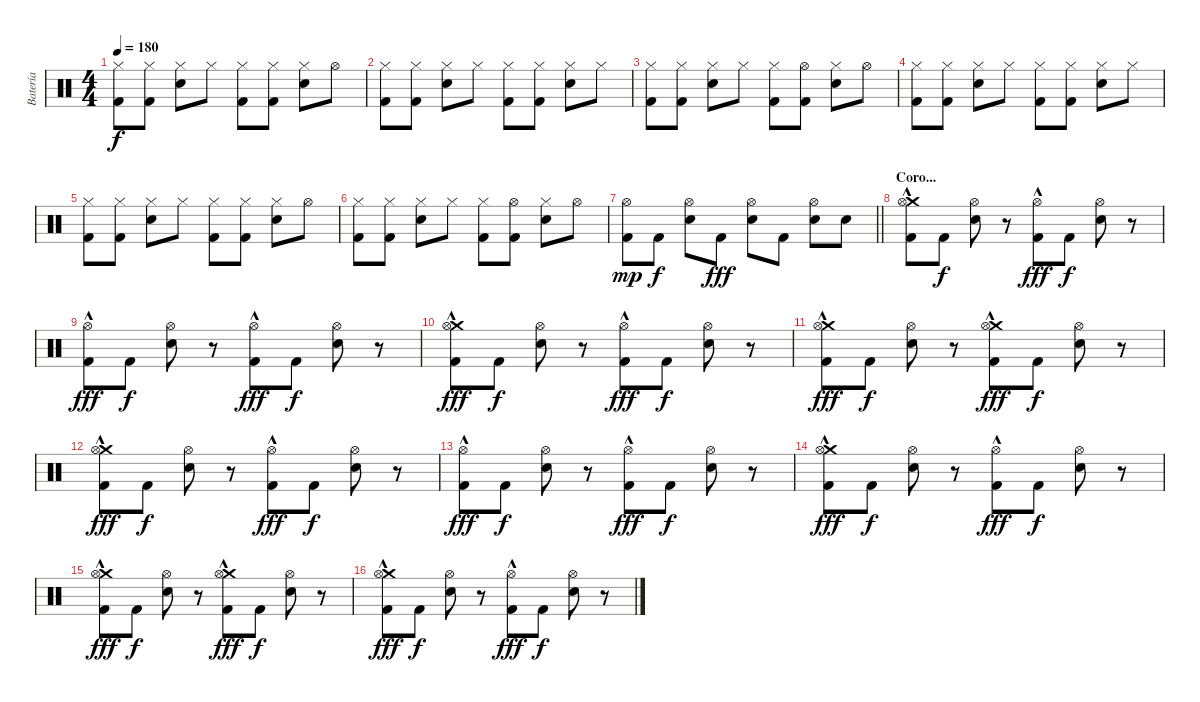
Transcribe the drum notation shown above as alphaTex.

\track ("Batería" "Batería") {instrument percussion}
\staff {score}
\articulation defaults
\ts (4 4)
\tempo 180
\clef neutral
\ks c
("Hi-Hat (closed)" "Kick (hit) 2").8{dy f} ("Hi-Hat (closed)" "Kick (hit) 2").8 ("Snare (hit) 2" "Hi-Hat (closed)").8 "Hi-Hat (closed)".8 ("Hi-Hat (closed)" "Kick (hit) 2").8 ("Hi-Hat (closed)" "Kick (hit) 2").8 ("Snare (hit) 2" "Hi-Hat (closed)").8 "Hi-Hat (open)".8 |
("Hi-Hat (closed)" "Kick (hit) 2").8 ("Hi-Hat (closed)" "Kick (hit) 2").8 ("Snare (hit) 2" "Hi-Hat (closed)").8 "Hi-Hat (closed)".8 ("Hi-Hat (closed)" "Kick (hit) 2").8 ("Hi-Hat (closed)" "Kick (hit) 2").8 ("Snare (hit) 2" "Hi-Hat (closed)").8 "Hi-Hat (closed)".8 |
("Hi-Hat (closed)" "Kick (hit) 2").8 ("Hi-Hat (closed)" "Kick (hit) 2").8 ("Snare (hit) 2" "Hi-Hat (closed)").8 "Hi-Hat (closed)".8 ("Hi-Hat (closed)" "Kick (hit) 2").8 ("Hi-Hat (open)" "Kick (hit) 2").8 ("Snare (hit) 2" "Hi-Hat (closed)").8 "Hi-Hat (open)".8 |
("Hi-Hat (closed)" "Kick (hit) 2").8 ("Hi-Hat (closed)" "Kick (hit) 2").8 ("Snare (hit) 2" "Hi-Hat (closed)").8 "Hi-Hat (closed)".8 ("Hi-Hat (closed)" "Kick (hit) 2").8 ("Hi-Hat (closed)" "Kick (hit) 2").8 ("Snare (hit) 2" "Hi-Hat (closed)").8 "Hi-Hat (closed)".8 |
("Hi-Hat (closed)" "Kick (hit) 2").8 ("Hi-Hat (closed)" "Kick (hit) 2").8 ("Snare (hit) 2" "Hi-Hat (closed)").8 "Hi-Hat (closed)".8 ("Hi-Hat (closed)" "Kick (hit) 2").8 ("Hi-Hat (closed)" "Kick (hit) 2").8 ("Snare (hit) 2" "Hi-Hat (closed)").8 "Hi-Hat (open)".8 |
("Hi-Hat (closed)" "Kick (hit) 2").8 ("Hi-Hat (closed)" "Kick (hit) 2").8 ("Snare (hit) 2" "Hi-Hat (closed)").8 "Hi-Hat (closed)".8 ("Hi-Hat (closed)" "Kick (hit) 2").8 ("Hi-Hat (open)" "Kick (hit) 2").8 ("Snare (hit) 2" "Hi-Hat (closed)").8 "Hi-Hat (open)".8 |
\barLineRight lightlight
("Hi-Hat (open)" "Kick (hit) 2").8{dy mp} "Kick (hit) 2".8{dy f} ("Snare (hit) 2" "Hi-Hat (open)").8 "Kick (hit) 2".8{dy fff} ("Snare (hit) 2" "Hi-Hat (open)").8 "Kick (hit) 2".8 ("Snare (hit) 2" "Hi-Hat (open)").8 "Snare (hit) 2".8 |
\section ("" "Coro...")
("Crash medium (hit)" "Hi-Hat (open)" "Kick (hit) 2"{hac}).8 "Kick (hit) 2".8{dy f} ("Snare (hit) 2" "Hi-Hat (open)").8 r.8 ("Hi-Hat (open)" "Kick (hit) 2"{hac}).8{dy fff} "Kick (hit) 2".8{dy f} ("Snare (hit) 2" "Hi-Hat (open)").8 r.8 |
("Hi-Hat (open)" "Kick (hit) 2"{hac}).8{dy fff} "Kick (hit) 2".8{dy f} ("Snare (hit) 2" "Hi-Hat (open)").8 r.8 ("Hi-Hat (open)" "Kick (hit) 2"{hac}).8{dy fff} "Kick (hit) 2".8{dy f} ("Snare (hit) 2" "Hi-Hat (open)").8 r.8 |
("Crash medium (hit)" "Hi-Hat (open)" "Kick (hit) 2"{hac}).8{dy fff} "Kick (hit) 2".8{dy f} ("Snare (hit) 2" "Hi-Hat (open)").8 r.8 ("Hi-Hat (open)" "Kick (hit) 2"{hac}).8{dy fff} "Kick (hit) 2".8{dy f} ("Snare (hit) 2" "Hi-Hat (open)").8 r.8 |
("Crash medium (hit)" "Hi-Hat (open)" "Kick (hit) 2"{hac}).8{dy fff} "Kick (hit) 2".8{dy f} ("Snare (hit) 2" "Hi-Hat (open)").8 r.8 ("Crash medium (hit)" "Hi-Hat (open)" "Kick (hit) 2"{hac}).8{dy fff} "Kick (hit) 2".8{dy f} ("Snare (hit) 2" "Hi-Hat (open)").8 r.8 |
("Crash medium (hit)" "Hi-Hat (open)" "Kick (hit) 2"{hac}).8{dy fff} "Kick (hit) 2".8{dy f} ("Snare (hit) 2" "Hi-Hat (open)").8 r.8 ("Hi-Hat (open)" "Kick (hit) 2"{hac}).8{dy fff} "Kick (hit) 2".8{dy f} ("Snare (hit) 2" "Hi-Hat (open)").8 r.8 |
("Hi-Hat (open)" "Kick (hit) 2"{hac}).8{dy fff} "Kick (hit) 2".8{dy f} ("Snare (hit) 2" "Hi-Hat (open)").8 r.8 ("Hi-Hat (open)" "Kick (hit) 2"{hac}).8{dy fff} "Kick (hit) 2".8{dy f} ("Snare (hit) 2" "Hi-Hat (open)").8 r.8 |
("Crash medium (hit)" "Hi-Hat (open)" "Kick (hit) 2"{hac}).8{dy fff} "Kick (hit) 2".8{dy f} ("Snare (hit) 2" "Hi-Hat (open)").8 r.8 ("Hi-Hat (open)" "Kick (hit) 2"{hac}).8{dy fff} "Kick (hit) 2".8{dy f} ("Snare (hit) 2" "Hi-Hat (open)").8 r.8 |
("Crash medium (hit)" "Hi-Hat (open)" "Kick (hit) 2"{hac}).8{dy fff} "Kick (hit) 2".8{dy f} ("Snare (hit) 2" "Hi-Hat (open)").8 r.8 ("Crash medium (hit)" "Hi-Hat (open)" "Kick (hit) 2"{hac}).8{dy fff} "Kick (hit) 2".8{dy f} ("Snare (hit) 2" "Hi-Hat (open)").8 r.8 |
("Crash medium (hit)" "Hi-Hat (open)" "Kick (hit) 2"{hac}).8{dy fff} "Kick (hit) 2".8{dy f} ("Snare (hit) 2" "Hi-Hat (open)").8 r.8 ("Hi-Hat (open)" "Kick (hit) 2"{hac}).8{dy fff} "Kick (hit) 2".8{dy f} ("Snare (hit) 2" "Hi-Hat (open)").8 r.8
